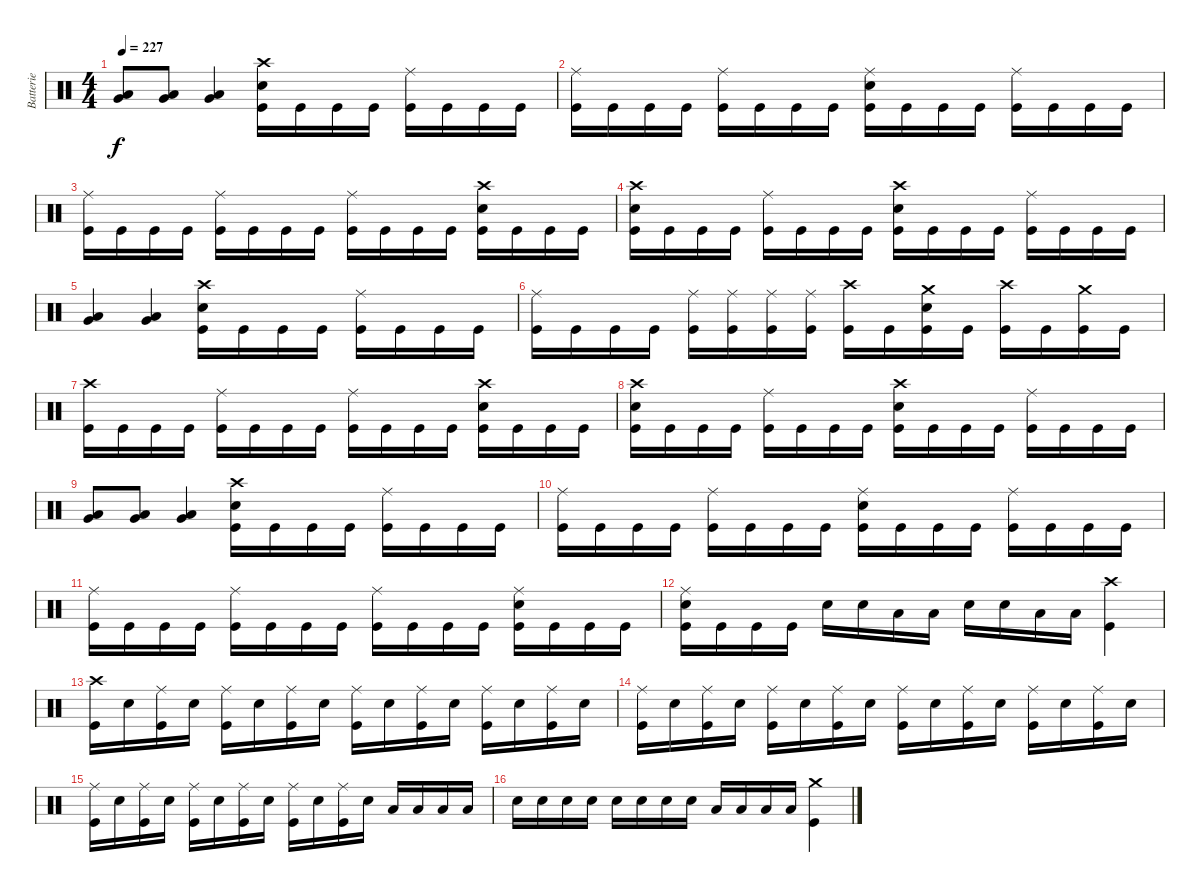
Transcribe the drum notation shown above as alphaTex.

\track ("Batterie" "Batterie") {instrument percussion}
\staff {score}
\articulation defaults
\ts (4 4)
\tempo 227
\clef neutral
\ks c
("Low Tom (hit)" "Very Low Tom (hit)").8{dy f} ("Low Tom (hit)" "Very Low Tom (hit)").8 ("Low Tom (hit)" "Very Low Tom (hit)").4 ("Crash high (hit)" "Electric Snare (hit)" "Kick (hit)").16 "Kick (hit)".16 "Kick (hit)".16 "Kick (hit)".16 ("Ride (middle)" "Kick (hit)").16 "Kick (hit)".16 "Kick (hit)".16 "Kick (hit)".16 |
("Ride (middle)" "Kick (hit)").16 "Kick (hit)".16 "Kick (hit)".16 "Kick (hit)".16 ("Ride (middle)" "Kick (hit)").16 "Kick (hit)".16 "Kick (hit)".16 "Kick (hit)".16 ("Ride (middle)" "Electric Snare (hit)" "Kick (hit)").16 "Kick (hit)".16 "Kick (hit)".16 "Kick (hit)".16 ("Ride (middle)" "Kick (hit)").16 "Kick (hit)".16 "Kick (hit)".16 "Kick (hit)".16 |
("Ride (middle)" "Kick (hit)").16 "Kick (hit)".16 "Kick (hit)".16 "Kick (hit)".16 ("Ride (middle)" "Kick (hit)").16 "Kick (hit)".16 "Kick (hit)".16 "Kick (hit)".16 ("Ride (middle)" "Kick (hit)").16 "Kick (hit)".16 "Kick (hit)".16 "Kick (hit)".16 ("Crash high (hit)" "Electric Snare (hit)" "Kick (hit)").16 "Kick (hit)".16 "Kick (hit)".16 "Kick (hit)".16 |
("Crash high (hit)" "Electric Snare (hit)" "Kick (hit)").16 "Kick (hit)".16 "Kick (hit)".16 "Kick (hit)".16 ("Ride (middle)" "Kick (hit)").16 "Kick (hit)".16 "Kick (hit)".16 "Kick (hit)".16 ("Crash high (hit)" "Electric Snare (hit)" "Kick (hit)").16 "Kick (hit)".16 "Kick (hit)".16 "Kick (hit)".16 ("Ride (middle)" "Kick (hit)").16 "Kick (hit)".16 "Kick (hit)".16 "Kick (hit)".16 |
("Low Tom (hit)" "Very Low Tom (hit)").4 ("Low Tom (hit)" "Very Low Tom (hit)").4 ("Crash high (hit)" "Electric Snare (hit)" "Kick (hit)").16 "Kick (hit)".16 "Kick (hit)".16 "Kick (hit)".16 ("Ride (middle)" "Kick (hit)").16 "Kick (hit)".16 "Kick (hit)".16 "Kick (hit)".16 |
("Ride (middle)" "Kick (hit)").16 "Kick (hit)".16 "Kick (hit)".16 "Kick (hit)".16 ("Ride (middle)" "Kick (hit)").16 ("Ride (middle)" "Kick (hit)").16 ("Ride (middle)" "Kick (hit)").16 ("Ride (middle)" "Kick (hit)").16 ("Crash high (hit)" "Kick (hit)").16 "Kick (hit)".16 ("Crash medium (hit)" "Electric Snare (hit)" "Kick (hit)").16 "Kick (hit)".16 ("Crash high (hit)" "Kick (hit)").16 "Kick (hit)".16 ("Crash medium (hit)" "Kick (hit)").16 "Kick (hit)".16 |
("Crash high (hit)" "Kick (hit)").16 "Kick (hit)".16 "Kick (hit)".16 "Kick (hit)".16 ("Ride (middle)" "Kick (hit)").16 "Kick (hit)".16 "Kick (hit)".16 "Kick (hit)".16 ("Ride (middle)" "Kick (hit)").16 "Kick (hit)".16 "Kick (hit)".16 "Kick (hit)".16 ("Crash high (hit)" "Electric Snare (hit)" "Kick (hit)").16 "Kick (hit)".16 "Kick (hit)".16 "Kick (hit)".16 |
("Crash high (hit)" "Electric Snare (hit)" "Kick (hit)").16 "Kick (hit)".16 "Kick (hit)".16 "Kick (hit)".16 ("Ride (middle)" "Kick (hit)").16 "Kick (hit)".16 "Kick (hit)".16 "Kick (hit)".16 ("Crash high (hit)" "Electric Snare (hit)" "Kick (hit)").16 "Kick (hit)".16 "Kick (hit)".16 "Kick (hit)".16 ("Ride (middle)" "Kick (hit)").16 "Kick (hit)".16 "Kick (hit)".16 "Kick (hit)".16 |
("Low Tom (hit)" "Very Low Tom (hit)").8 ("Low Tom (hit)" "Very Low Tom (hit)").8 ("Low Tom (hit)" "Very Low Tom (hit)").4 ("Crash high (hit)" "Electric Snare (hit)" "Kick (hit)").16 "Kick (hit)".16 "Kick (hit)".16 "Kick (hit)".16 ("Ride (middle)" "Kick (hit)").16 "Kick (hit)".16 "Kick (hit)".16 "Kick (hit)".16 |
("Ride (middle)" "Kick (hit)").16 "Kick (hit)".16 "Kick (hit)".16 "Kick (hit)".16 ("Ride (middle)" "Kick (hit)").16 "Kick (hit)".16 "Kick (hit)".16 "Kick (hit)".16 ("Ride (middle)" "Electric Snare (hit)" "Kick (hit)").16 "Kick (hit)".16 "Kick (hit)".16 "Kick (hit)".16 ("Ride (middle)" "Kick (hit)").16 "Kick (hit)".16 "Kick (hit)".16 "Kick (hit)".16 |
("Ride (middle)" "Kick (hit)").16 "Kick (hit)".16 "Kick (hit)".16 "Kick (hit)".16 ("Ride (middle)" "Kick (hit)").16 "Kick (hit)".16 "Kick (hit)".16 "Kick (hit)".16 ("Ride (middle)" "Kick (hit)").16 "Kick (hit)".16 "Kick (hit)".16 "Kick (hit)".16 ("Ride (middle)" "Electric Snare (hit)" "Kick (hit)").16 "Kick (hit)".16 "Kick (hit)".16 "Kick (hit)".16 |
("Ride (middle)" "Electric Snare (hit)" "Kick (hit)").16 "Kick (hit)".16 "Kick (hit)".16 "Kick (hit)".16 "Electric Snare (hit)".16 "Electric Snare (hit)".16 "Low Tom (hit)".16 "Low Tom (hit)".16 "Electric Snare (hit)".16 "Electric Snare (hit)".16 "Low Tom (hit)".16 "Low Tom (hit)".16 ("Crash high (hit)" "Kick (hit)").4 |
("Crash high (hit)" "Kick (hit)").16 "Electric Snare (hit)".16 ("Ride (middle)" "Kick (hit)").16 "Electric Snare (hit)".16 ("Ride (middle)" "Kick (hit)").16 "Electric Snare (hit)".16 ("Ride (middle)" "Kick (hit)").16 "Electric Snare (hit)".16 ("Ride (middle)" "Kick (hit)").16 "Electric Snare (hit)".16 ("Ride (middle)" "Kick (hit)").16 "Electric Snare (hit)".16 ("Ride (middle)" "Kick (hit)").16 "Electric Snare (hit)".16 ("Ride (middle)" "Kick (hit)").16 "Electric Snare (hit)".16 |
("Ride (middle)" "Kick (hit)").16 "Electric Snare (hit)".16 ("Ride (middle)" "Kick (hit)").16 "Electric Snare (hit)".16 ("Ride (middle)" "Kick (hit)").16 "Electric Snare (hit)".16 ("Ride (middle)" "Kick (hit)").16 "Electric Snare (hit)".16 ("Ride (middle)" "Kick (hit)").16 "Electric Snare (hit)".16 ("Ride (middle)" "Kick (hit)").16 "Electric Snare (hit)".16 ("Ride (middle)" "Kick (hit)").16 "Electric Snare (hit)".16 ("Ride (middle)" "Kick (hit)").16 "Electric Snare (hit)".16 |
("Ride (middle)" "Kick (hit)").16 "Electric Snare (hit)".16 ("Ride (middle)" "Kick (hit)").16 "Electric Snare (hit)".16 ("Ride (middle)" "Kick (hit)").16 "Electric Snare (hit)".16 ("Ride (middle)" "Kick (hit)").16 "Electric Snare (hit)".16 ("Ride (middle)" "Kick (hit)").16 "Electric Snare (hit)".16 ("Ride (middle)" "Kick (hit)").16 "Electric Snare (hit)".16 "Low Tom (hit)".16 "Low Tom (hit)".16 "Low Tom (hit)".16 "Low Tom (hit)".16 |
"Electric Snare (hit)".16 "Electric Snare (hit)".16 "Electric Snare (hit)".16 "Electric Snare (hit)".16 "Electric Snare (hit)".16 "Electric Snare (hit)".16 "Electric Snare (hit)".16 "Electric Snare (hit)".16 "Low Tom (hit)".16 "Low Tom (hit)".16 "Low Tom (hit)".16 "Low Tom (hit)".16 ("Crash medium (hit)" "Kick (hit)").4
